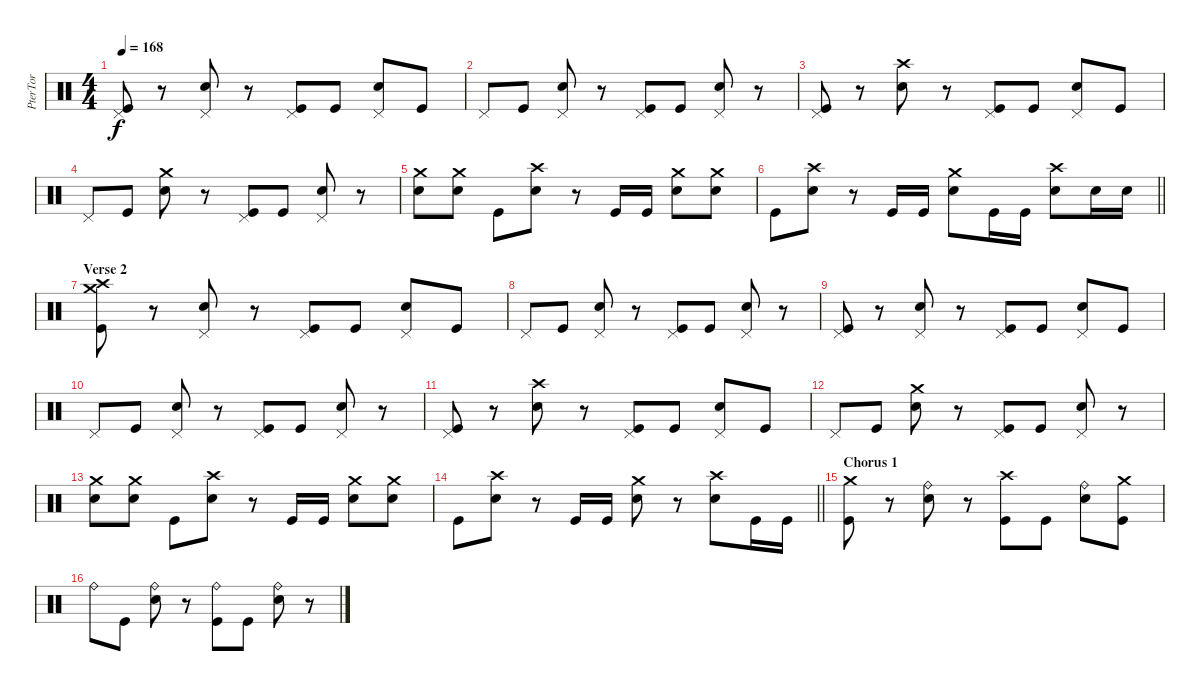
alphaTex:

\track ("PterTor" "PterTor") {instrument percussion}
\staff {score}
\articulation defaults
\ts (4 4)
\tempo 168
\clef neutral
\ks c
("Pedal Hi-Hat (hit)" "Kick (hit)").8{dy f} r.8 ("Pedal Hi-Hat (hit)" "Electric Snare (hit)").8 r.8 ("Pedal Hi-Hat (hit)" "Kick (hit)").8 "Kick (hit)".8 ("Pedal Hi-Hat (hit)" "Electric Snare (hit)").8 "Kick (hit)".8 |
"Pedal Hi-Hat (hit)".8 "Kick (hit)".8 ("Pedal Hi-Hat (hit)" "Electric Snare (hit)").8 r.8 ("Pedal Hi-Hat (hit)" "Kick (hit)").8 "Kick (hit)".8 ("Pedal Hi-Hat (hit)" "Electric Snare (hit)").8 r.8 |
("Pedal Hi-Hat (hit)" "Kick (hit)").8 r.8 ("Crash high (hit)" "Electric Snare (hit)").8 r.8 ("Pedal Hi-Hat (hit)" "Kick (hit)").8 "Kick (hit)".8 ("Pedal Hi-Hat (hit)" "Electric Snare (hit)").8 "Kick (hit)".8 |
"Pedal Hi-Hat (hit)".8 "Kick (hit)".8 ("Crash medium (hit)" "Electric Snare (hit)").8 r.8 ("Pedal Hi-Hat (hit)" "Kick (hit)").8 "Kick (hit)".8 ("Pedal Hi-Hat (hit)" "Electric Snare (hit)").8 r.8 |
("Crash medium (hit)" "Electric Snare (hit)").8 ("Crash medium (hit)" "Electric Snare (hit)").8 "Kick (hit)".8 ("Crash high (hit)" "Electric Snare (hit)").8 r.8 "Kick (hit)".16 "Kick (hit)".16 ("Crash medium (hit)" "Electric Snare (hit)").8 ("Crash medium (hit)" "Electric Snare (hit)").8 |
\barLineRight lightlight "Kick (hit)".8
("Crash high (hit)" "Electric Snare (hit)").8 r.8 "Kick (hit)".16 "Kick (hit)".16 ("Crash medium (hit)" "Electric Snare (hit)").8 "Kick (hit)".16 "Kick (hit)".16 ("Crash high (hit)" "Electric Snare (hit)").8 "Electric Snare (hit)".16 "Electric Snare (hit)".16 |
\section ("" "Verse 2")
("Crash high (hit)" "Crash medium (hit)" "Kick (hit)").8 r.8 ("Pedal Hi-Hat (hit)" "Electric Snare (hit)").8 r.8 ("Pedal Hi-Hat (hit)" "Kick (hit)").8 "Kick (hit)".8 ("Pedal Hi-Hat (hit)" "Electric Snare (hit)").8 "Kick (hit)".8 |
"Pedal Hi-Hat (hit)".8 "Kick (hit)".8 ("Pedal Hi-Hat (hit)" "Electric Snare (hit)").8 r.8 ("Pedal Hi-Hat (hit)" "Kick (hit)").8 "Kick (hit)".8 ("Pedal Hi-Hat (hit)" "Electric Snare (hit)").8 r.8 |
("Pedal Hi-Hat (hit)" "Kick (hit)").8 r.8 ("Pedal Hi-Hat (hit)" "Electric Snare (hit)").8 r.8 ("Pedal Hi-Hat (hit)" "Kick (hit)").8 "Kick (hit)".8 ("Pedal Hi-Hat (hit)" "Electric Snare (hit)").8 "Kick (hit)".8 |
"Pedal Hi-Hat (hit)".8 "Kick (hit)".8 ("Pedal Hi-Hat (hit)" "Electric Snare (hit)").8 r.8 ("Pedal Hi-Hat (hit)" "Kick (hit)").8 "Kick (hit)".8 ("Pedal Hi-Hat (hit)" "Electric Snare (hit)").8 r.8 |
("Pedal Hi-Hat (hit)" "Kick (hit)").8 r.8 ("Crash high (hit)" "Electric Snare (hit)").8 r.8 ("Pedal Hi-Hat (hit)" "Kick (hit)").8 "Kick (hit)".8 ("Pedal Hi-Hat (hit)" "Electric Snare (hit)").8 "Kick (hit)".8 |
"Pedal Hi-Hat (hit)".8 "Kick (hit)".8 ("Crash medium (hit)" "Electric Snare (hit)").8 r.8 ("Pedal Hi-Hat (hit)" "Kick (hit)").8 "Kick (hit)".8 ("Pedal Hi-Hat (hit)" "Electric Snare (hit)").8 r.8 |
("Crash medium (hit)" "Electric Snare (hit)").8 ("Crash medium (hit)" "Electric Snare (hit)").8 "Kick (hit)".8 ("Crash high (hit)" "Electric Snare (hit)").8 r.8 "Kick (hit)".16 "Kick (hit)".16 ("Crash medium (hit)" "Electric Snare (hit)").8 ("Crash medium (hit)" "Electric Snare (hit)").8 |
\barLineRight lightlight "Kick (hit)".8
("Crash high (hit)" "Electric Snare (hit)").8 r.8 "Kick (hit)".16 "Kick (hit)".16 ("Crash medium (hit)" "Electric Snare (hit)").8 r.8 ("Crash high (hit)" "Electric Snare (hit)").8 "Kick (hit)".16 "Kick (hit)".16 |
\section ("" "Chorus 1")
("Crash medium (hit)" "Kick (hit)").8 r.8 ("Ride (bell)" "Electric Snare (hit)").8 r.8 ("Crash high (hit)" "Kick (hit)").8 "Kick (hit)".8 ("Ride (bell)" "Electric Snare (hit)").8 ("Crash medium (hit)" "Kick (hit)").8 |
"Ride (bell)".8 "Kick (hit)".8 ("Ride (bell)" "Electric Snare (hit)").8 r.8 ("Ride (bell)" "Kick (hit)").8 "Kick (hit)".8 ("Ride (bell)" "Electric Snare (hit)").8 r.8
